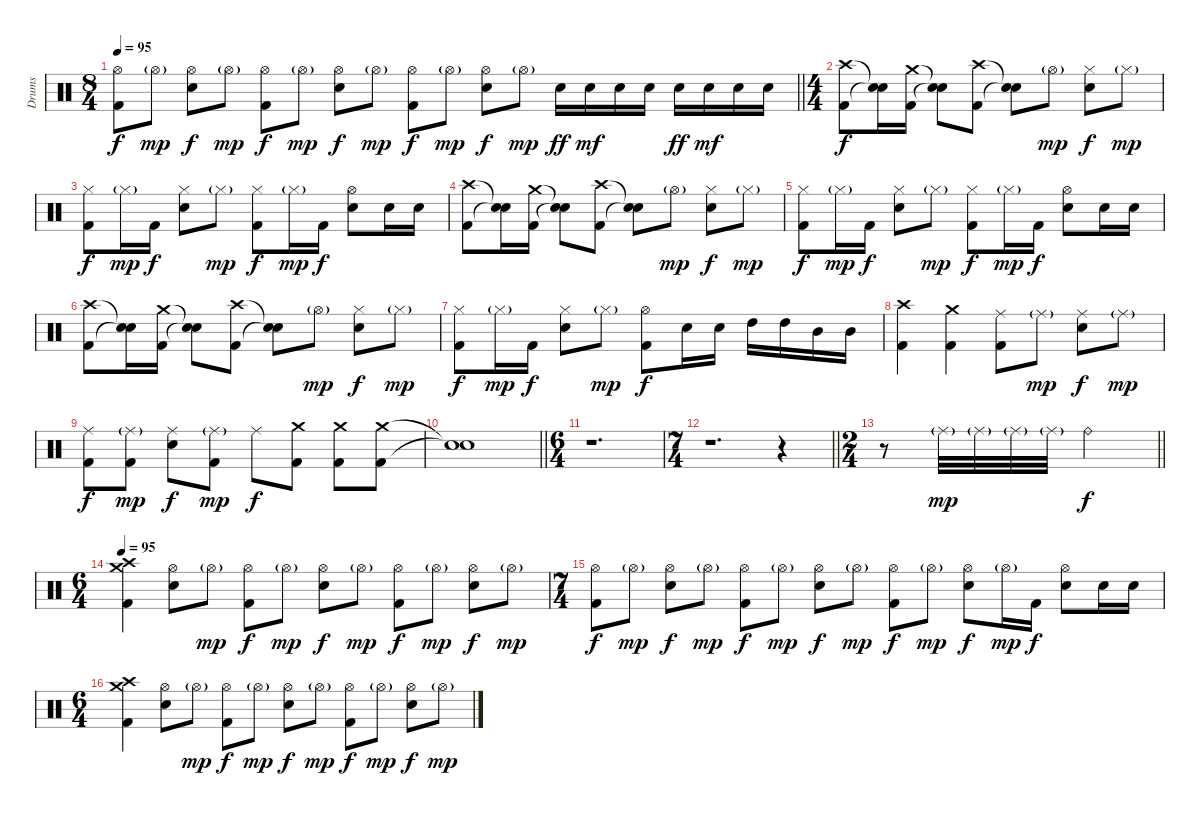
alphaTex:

\track ("Drums" "Drums") {instrument percussion}
\staff {score}
\articulation defaults
\ts (8 4)
\tempo 95
\clef neutral
\barLineRight lightlight
\ks c
("Hi-Hat (open)" "Kick (hit) 2").8{dy f} "Hi-Hat (open)"{g}.8{dy mp} ("Hi-Hat (open)" "Electric Snare (hit)").8{dy f} "Hi-Hat (open)"{g}.8{dy mp} ("Hi-Hat (open)" "Kick (hit) 2").8{dy f} "Hi-Hat (open)"{g}.8{dy mp} ("Hi-Hat (open)" "Electric Snare (hit)").8{dy f} "Hi-Hat (open)"{g}.8{dy mp} ("Hi-Hat (open)" "Kick (hit) 2").8{dy f} "Hi-Hat (open)"{g}.8{dy mp} ("Hi-Hat (open)" "Electric Snare (hit)").8{dy f} "Hi-Hat (open)"{g}.8{dy mp} "Electric Snare (hit)".16{dy ff} "Electric Snare (hit)".16{dy mf} "Electric Snare (hit)".16 "Electric Snare (hit)".16 "Electric Snare (hit)".16{dy ff} "Electric Snare (hit)".16{dy mf} "Electric Snare (hit)".16 "Electric Snare (hit)".16 |
\ts (4 4)
("Crash high (hit)" "Kick (hit) 2").8{dy f} ("Snare (hit)"{t} "Snare (hit)"{t}).16 ("Crash medium (hit)" "Kick (hit) 2").16 ("Snare (hit)"{t} "Snare (hit)"{t}).8 ("Crash high (hit)" "Kick (hit) 2").8 ("Snare (hit)"{t} "Snare (hit)"{t}).8 "Hi-Hat (open)"{g}.8{dy mp} ("Hi-Hat (closed)" "Electric Snare (hit)").8{dy f} "Hi-Hat (closed)"{g}.8{dy mp} |
("Hi-Hat (closed)" "Kick (hit) 2").8{dy f} "Hi-Hat (closed)"{g}.16{dy mp} "Kick (hit) 2".16{dy f} ("Hi-Hat (closed)" "Electric Snare (hit)").8 "Hi-Hat (closed)"{g}.8{dy mp} ("Hi-Hat (closed)" "Kick (hit) 2").8{dy f} "Hi-Hat (closed)"{g}.16{dy mp} "Kick (hit) 2".16{dy f} ("Hi-Hat (open)" "Electric Snare (hit)").8 "Electric Snare (hit)".16 "Electric Snare (hit)".16 |
("Crash high (hit)" "Kick (hit) 2").8 ("Snare (hit)"{t} "Snare (hit)"{t}).16 ("Crash medium (hit)" "Kick (hit) 2").16 ("Snare (hit)"{t} "Snare (hit)"{t}).8 ("Crash high (hit)" "Kick (hit) 2").8 ("Snare (hit)"{t} "Snare (hit)"{t}).8 "Hi-Hat (open)"{g}.8{dy mp} ("Hi-Hat (closed)" "Electric Snare (hit)").8{dy f} "Hi-Hat (closed)"{g}.8{dy mp} |
("Hi-Hat (closed)" "Kick (hit) 2").8{dy f} "Hi-Hat (closed)"{g}.16{dy mp} "Kick (hit) 2".16{dy f} ("Hi-Hat (closed)" "Electric Snare (hit)").8 "Hi-Hat (closed)"{g}.8{dy mp} ("Hi-Hat (closed)" "Kick (hit) 2").8{dy f} "Hi-Hat (closed)"{g}.16{dy mp} "Kick (hit) 2".16{dy f} ("Hi-Hat (open)" "Electric Snare (hit)").8 "Electric Snare (hit)".16 "Electric Snare (hit)".16 |
("Crash high (hit)" "Kick (hit) 2").8 ("Snare (hit)"{t} "Snare (hit)"{t}).16 ("Crash medium (hit)" "Kick (hit) 2").16 ("Snare (hit)"{t} "Snare (hit)"{t}).8 ("Crash high (hit)" "Kick (hit) 2").8 ("Snare (hit)"{t} "Snare (hit)"{t}).8 "Hi-Hat (open)"{g}.8{dy mp} ("Hi-Hat (closed)" "Electric Snare (hit)").8{dy f} "Hi-Hat (closed)"{g}.8{dy mp} |
("Hi-Hat (closed)" "Kick (hit) 2").8{dy f} "Hi-Hat (closed)"{g}.16{dy mp} "Kick (hit) 2".16{dy f} ("Hi-Hat (closed)" "Electric Snare (hit)").8 "Hi-Hat (closed)"{g}.8{dy mp} ("Hi-Hat (open)" "Kick (hit) 2").8{dy f} "Electric Snare (hit)".16 "Electric Snare (hit)".16 "High Tom (hit)".16 "High Tom (hit)".16 "Mid Tom (hit)".16 "Mid Tom (hit)".16 |
("Crash high (hit)" "Kick (hit) 2").4 ("Crash medium (hit)" "Kick (hit) 2").4 ("Ride (middle)" "Kick (hit) 2").8 "Ride (middle)"{g}.8{dy mp} ("Ride (middle)" "Electric Snare (hit)").8{dy f} "Ride (middle)"{g}.8{dy mp} |
("Ride (middle)" "Kick (hit) 2").8{dy f} ("Ride (middle)"{g} "Kick (hit) 2").8{dy mp} ("Ride (middle)" "Electric Snare (hit)").8{dy f} ("Ride (middle)"{g} "Kick (hit) 2").8{dy mp} "Ride (middle)".8{dy f} ("Crash medium (hit)" "Kick (hit) 2").8 ("Crash medium (hit)" "Kick (hit) 2").8 ("Crash medium (hit)" "Kick (hit) 2").8 |
\barLineRight lightlight
("Snare (hit)"{t} "Snare (hit)"{t}).1 |
\ts (6 4)
r.1{d} |
\ts (7 4)
\barLineRight lightlight
r.1{d} r.4 |
\ts (2 4)
\barLineRight lightlight
r.8 "Ride (middle)"{g}.32{dy mp} "Ride (middle)"{g}.32 "Ride (middle)"{g}.32 "Ride (middle)"{g}.32 "Ride (bell)".4{dy f} |
\ts (6 4)
\tempo 95
("Crash high (hit)" "Crash medium (hit)" "Kick (hit) 2").4 ("Hi-Hat (open)" "Electric Snare (hit)").8 "Hi-Hat (open)"{g}.8{dy mp} ("Hi-Hat (open)" "Kick (hit) 2").8{dy f} "Hi-Hat (open)"{g}.8{dy mp} ("Hi-Hat (open)" "Electric Snare (hit)").8{dy f} "Hi-Hat (open)"{g}.8{dy mp} ("Hi-Hat (open)" "Kick (hit) 2").8{dy f} "Hi-Hat (open)"{g}.8{dy mp} ("Hi-Hat (open)" "Electric Snare (hit)").8{dy f} "Hi-Hat (open)"{g}.8{dy mp} |
\ts (7 4)
("Hi-Hat (open)" "Kick (hit) 2").8{dy f} "Hi-Hat (open)"{g}.8{dy mp} ("Hi-Hat (open)" "Electric Snare (hit)").8{dy f} "Hi-Hat (open)"{g}.8{dy mp} ("Hi-Hat (open)" "Kick (hit) 2").8{dy f} "Hi-Hat (open)"{g}.8{dy mp} ("Hi-Hat (open)" "Electric Snare (hit)").8{dy f} "Hi-Hat (open)"{g}.8{dy mp} ("Hi-Hat (open)" "Kick (hit) 2").8{dy f} "Hi-Hat (open)"{g}.8{dy mp} ("Hi-Hat (open)" "Electric Snare (hit)").8{dy f} "Hi-Hat (open)"{g}.16{dy mp} "Kick (hit) 2".16{dy f} ("Hi-Hat (open)" "Electric Snare (hit)").8 "Electric Snare (hit)".16 "Electric Snare (hit)".16 |
\ts (6 4)
("Crash high (hit)" "Crash medium (hit)" "Kick (hit) 2").4 ("Hi-Hat (open)" "Electric Snare (hit)").8 "Hi-Hat (open)"{g}.8{dy mp} ("Hi-Hat (open)" "Kick (hit) 2").8{dy f} "Hi-Hat (open)"{g}.8{dy mp} ("Hi-Hat (open)" "Electric Snare (hit)").8{dy f} "Hi-Hat (open)"{g}.8{dy mp} ("Hi-Hat (open)" "Kick (hit) 2").8{dy f} "Hi-Hat (open)"{g}.8{dy mp} ("Hi-Hat (open)" "Electric Snare (hit)").8{dy f} "Hi-Hat (open)"{g}.8{dy mp}
